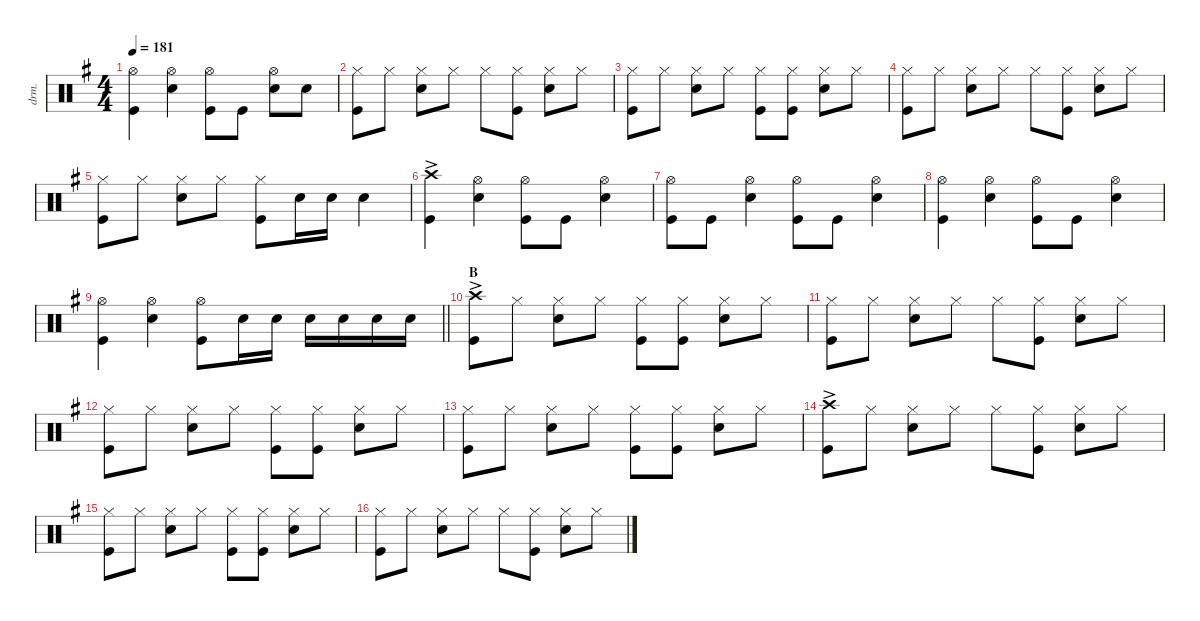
\defaultSystemsLayout 4
\hideDynamics
\bracketExtendMode nobrackets
\track ("Drums" "drm.") {instrument percussion}
\staff {score}
\articulation defaults
\ts (4 4)
\tempo 181
\clef neutral
\ks g
("Hi-Hat (open)"{acc forcenatural} "Kick (hit)"{acc forcenatural}).4{dy f} ("Hi-Hat (open)"{acc forcenatural} "Snare (hit) 2"{acc forcenatural}).4 ("Hi-Hat (open)"{acc forcenatural} "Kick (hit)"{acc forcenatural}).8 "Kick (hit)"{acc forcenatural}.8 ("Hi-Hat (open)"{acc forcenatural} "Snare (hit) 2"{acc forcenatural}).8 "Snare (hit) 2"{acc forcenatural}.8 |
("Hi-Hat (closed)"{acc forcenatural} "Kick (hit)"{acc forcenatural}).8 "Hi-Hat (closed)"{acc forcenatural}.8 ("Snare (hit) 2"{acc forcenatural} "Hi-Hat (closed)"{acc forcenatural}).8 "Hi-Hat (closed)"{acc forcenatural}.8 "Hi-Hat (closed)"{acc forcenatural}.8 ("Kick (hit)"{acc forcenatural} "Hi-Hat (closed)"{acc forcenatural}).8 ("Snare (hit) 2"{acc forcenatural} "Hi-Hat (closed)"{acc forcenatural}).8 "Hi-Hat (closed)"{acc forcenatural}.8 |
("Hi-Hat (closed)"{acc forcenatural} "Kick (hit)"{acc forcenatural}).8 "Hi-Hat (closed)"{acc forcenatural}.8 ("Snare (hit) 2"{acc forcenatural} "Hi-Hat (closed)"{acc forcenatural}).8 "Hi-Hat (closed)"{acc forcenatural}.8 ("Hi-Hat (closed)"{acc forcenatural} "Kick (hit)"{acc forcenatural}).8 ("Kick (hit)"{acc forcenatural} "Hi-Hat (closed)"{acc forcenatural}).8 ("Hi-Hat (closed)"{acc forcenatural} "Snare (hit) 2"{acc forcenatural}).8 "Hi-Hat (closed)"{acc forcenatural}.8 |
("Hi-Hat (closed)"{acc forcenatural} "Kick (hit)"{acc forcenatural}).8 "Hi-Hat (closed)"{acc forcenatural}.8 ("Snare (hit) 2"{acc forcenatural} "Hi-Hat (closed)"{acc forcenatural}).8 "Hi-Hat (closed)"{acc forcenatural}.8 "Hi-Hat (closed)"{acc forcenatural}.8 ("Kick (hit)"{acc forcenatural} "Hi-Hat (closed)"{acc forcenatural}).8 ("Snare (hit) 2"{acc forcenatural} "Hi-Hat (closed)"{acc forcenatural}).8 "Hi-Hat (closed)"{acc forcenatural}.8 |
("Hi-Hat (closed)"{acc forcenatural} "Kick (hit)"{acc forcenatural}).8 "Hi-Hat (closed)"{acc forcenatural}.8 ("Snare (hit) 2"{acc forcenatural} "Hi-Hat (closed)"{acc forcenatural}).8 "Hi-Hat (closed)"{acc forcenatural}.8 ("Hi-Hat (closed)"{acc forcenatural} "Kick (hit)"{acc forcenatural}).8 "Snare (hit) 2"{acc forcenatural}.16 "Snare (hit) 2"{acc forcenatural}.16 "Snare (hit) 2"{acc forcenatural}.4 |
("Kick (hit)"{acc forcenatural} "Crash high (hit)"{ac acc forcenatural}).4 ("Hi-Hat (open)"{acc forcenatural} "Snare (hit) 2"{acc forcenatural}).4 ("Kick (hit)"{acc forcenatural} "Hi-Hat (open)"{acc forcenatural}).8 "Kick (hit)"{acc forcenatural}.8 ("Snare (hit) 2"{acc forcenatural} "Hi-Hat (open)"{acc forcenatural}).4 |
("Kick (hit)"{acc forcenatural} "Hi-Hat (open)"{acc forcenatural}).8 "Kick (hit)"{acc forcenatural}.8 ("Hi-Hat (open)"{acc forcenatural} "Snare (hit) 2"{acc forcenatural}).4 ("Kick (hit)"{acc forcenatural} "Hi-Hat (open)"{acc forcenatural}).8 "Kick (hit)"{acc forcenatural}.8 ("Snare (hit) 2"{acc forcenatural} "Hi-Hat (open)"{acc forcenatural}).4 |
("Kick (hit)"{acc forcenatural} "Hi-Hat (open)"{acc forcenatural}).4 ("Hi-Hat (open)"{acc forcenatural} "Snare (hit) 2"{acc forcenatural}).4 ("Kick (hit)"{acc forcenatural} "Hi-Hat (open)"{acc forcenatural}).8 "Kick (hit)"{acc forcenatural}.8 ("Snare (hit) 2"{acc forcenatural} "Hi-Hat (open)"{acc forcenatural}).4 |
\barLineRight lightlight
("Kick (hit)"{acc forcenatural} "Hi-Hat (open)"{acc forcenatural}).4 ("Hi-Hat (open)"{acc forcenatural} "Snare (hit) 2"{acc forcenatural}).4 ("Hi-Hat (open)"{acc forcenatural} "Kick (hit)"{acc forcenatural}).8 "Snare (hit) 2"{acc forcenatural}.16 "Snare (hit) 2"{acc forcenatural}.16 "Snare (hit) 2"{acc forcenatural}.16 "Snare (hit) 2"{acc forcenatural}.16 "Snare (hit) 2"{acc forcenatural}.16 "Snare (hit) 2"{acc forcenatural}.16 |
\section ("" "B")
("Crash high (hit)"{ac acc forcenatural} "Kick (hit)"{acc forcenatural}).8 "Hi-Hat (closed)"{acc forcenatural}.8 ("Hi-Hat (closed)"{acc forcenatural} "Snare (hit) 2"{acc forcenatural}).8 "Hi-Hat (closed)"{acc forcenatural}.8 ("Hi-Hat (closed)"{acc forcenatural} "Kick (hit)"{acc forcenatural}).8 ("Hi-Hat (closed)"{acc forcenatural} "Kick (hit)"{acc forcenatural}).8 ("Hi-Hat (closed)"{acc forcenatural} "Snare (hit) 2"{acc forcenatural}).8 "Hi-Hat (closed)"{acc forcenatural}.8 |
("Hi-Hat (closed)"{acc forcenatural} "Kick (hit)"{acc forcenatural}).8 "Hi-Hat (closed)"{acc forcenatural}.8 ("Hi-Hat (closed)"{acc forcenatural} "Snare (hit) 2"{acc forcenatural}).8 "Hi-Hat (closed)"{acc forcenatural}.8 "Hi-Hat (closed)"{acc forcenatural}.8 ("Hi-Hat (closed)"{acc forcenatural} "Kick (hit)"{acc forcenatural}).8 ("Hi-Hat (closed)"{acc forcenatural} "Snare (hit) 2"{acc forcenatural}).8 "Hi-Hat (closed)"{acc forcenatural}.8 |
("Hi-Hat (closed)"{acc forcenatural} "Kick (hit)"{acc forcenatural}).8 "Hi-Hat (closed)"{acc forcenatural}.8 ("Hi-Hat (closed)"{acc forcenatural} "Snare (hit) 2"{acc forcenatural}).8 "Hi-Hat (closed)"{acc forcenatural}.8 ("Hi-Hat (closed)"{acc forcenatural} "Kick (hit)"{acc forcenatural}).8 ("Kick (hit)"{acc forcenatural} "Hi-Hat (closed)"{acc forcenatural}).8 ("Snare (hit) 2"{acc forcenatural} "Hi-Hat (closed)"{acc forcenatural}).8 "Hi-Hat (closed)"{acc forcenatural}.8 |
("Kick (hit)"{acc forcenatural} "Hi-Hat (closed)"{acc forcenatural}).8 "Hi-Hat (closed)"{acc forcenatural}.8 ("Snare (hit) 2"{acc forcenatural} "Hi-Hat (closed)"{acc forcenatural}).8 "Hi-Hat (closed)"{acc forcenatural}.8 ("Hi-Hat (closed)"{acc forcenatural} "Kick (hit)"{acc forcenatural}).8 ("Kick (hit)"{acc forcenatural} "Hi-Hat (closed)"{acc forcenatural}).8 ("Hi-Hat (closed)"{acc forcenatural} "Snare (hit) 2"{acc forcenatural}).8 "Hi-Hat (closed)"{acc forcenatural}.8 |
("Crash high (hit)"{ac acc forcenatural} "Kick (hit)"{acc forcenatural}).8 "Hi-Hat (closed)"{acc forcenatural}.8 ("Hi-Hat (closed)"{acc forcenatural} "Snare (hit) 2"{acc forcenatural}).8 "Hi-Hat (closed)"{acc forcenatural}.8 "Hi-Hat (closed)"{acc forcenatural}.8 ("Hi-Hat (closed)"{acc forcenatural} "Kick (hit)"{acc forcenatural}).8 ("Hi-Hat (closed)"{acc forcenatural} "Snare (hit) 2"{acc forcenatural}).8 "Hi-Hat (closed)"{acc forcenatural}.8 |
("Hi-Hat (closed)"{acc forcenatural} "Kick (hit)"{acc forcenatural}).8 "Hi-Hat (closed)"{acc forcenatural}.8 ("Hi-Hat (closed)"{acc forcenatural} "Snare (hit) 2"{acc forcenatural}).8 "Hi-Hat (closed)"{acc forcenatural}.8 ("Hi-Hat (closed)"{acc forcenatural} "Kick (hit)"{acc forcenatural}).8 ("Kick (hit)"{acc forcenatural} "Hi-Hat (closed)"{acc forcenatural}).8 ("Hi-Hat (closed)"{acc forcenatural} "Snare (hit) 2"{acc forcenatural}).8 "Hi-Hat (closed)"{acc forcenatural}.8 |
("Hi-Hat (closed)"{acc forcenatural} "Kick (hit)"{acc forcenatural}).8 "Hi-Hat (closed)"{acc forcenatural}.8 ("Hi-Hat (closed)"{acc forcenatural} "Snare (hit) 2"{acc forcenatural}).8 "Hi-Hat (closed)"{acc forcenatural}.8 "Hi-Hat (closed)"{acc forcenatural}.8 ("Hi-Hat (closed)"{acc forcenatural} "Kick (hit)"{acc forcenatural}).8 ("Snare (hit) 2"{acc forcenatural} "Hi-Hat (closed)"{acc forcenatural}).8 "Hi-Hat (closed)"{acc forcenatural}.8
